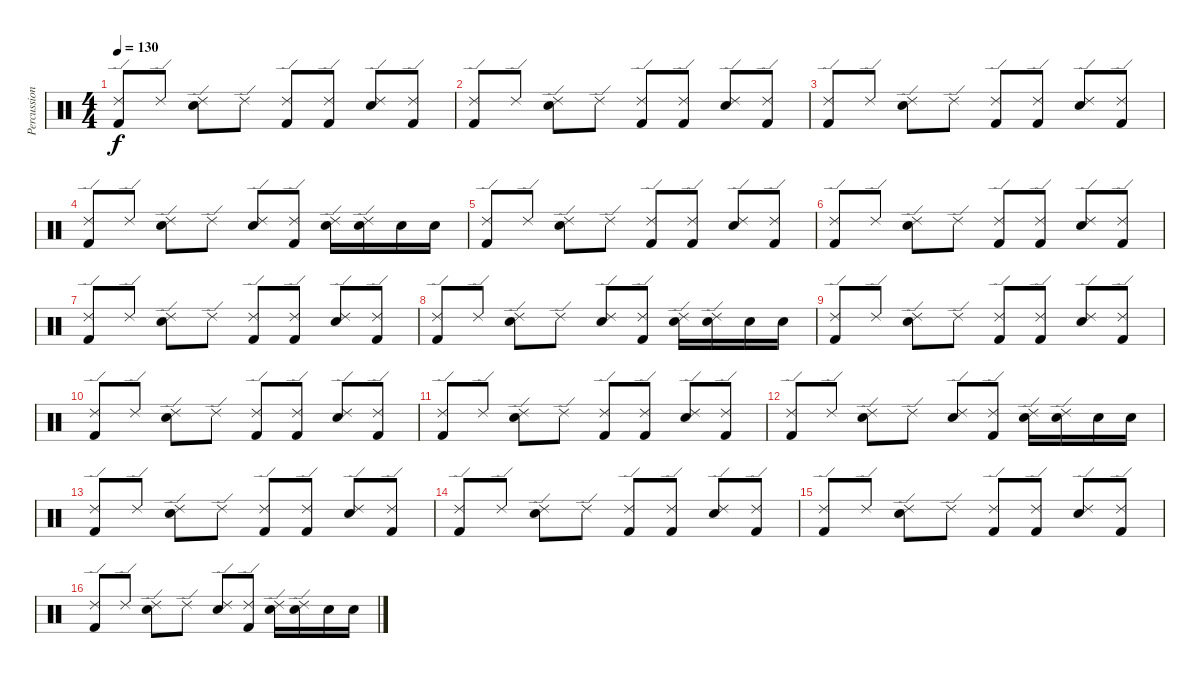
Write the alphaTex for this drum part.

\track ("Percussion" "Percussion") {instrument percussion}
\staff {score}
\articulation defaults
\ts (4 4)
\tempo 130
\clef neutral
\ks c
("Kick (hit) 2" "Ride (edge) 2").8{dy f} "Ride (edge) 2".8 ("Electric Snare (hit)" "Ride (edge) 2").8 "Ride (edge) 2".8 ("Kick (hit) 2" "Ride (edge) 2").8 ("Kick (hit) 2" "Ride (edge) 2").8 ("Electric Snare (hit)" "Ride (edge) 2").8 ("Kick (hit) 2" "Ride (edge) 2").8 |
("Kick (hit) 2" "Ride (edge) 2").8 "Ride (edge) 2".8 ("Electric Snare (hit)" "Ride (edge) 2").8 "Ride (edge) 2".8 ("Kick (hit) 2" "Ride (edge) 2").8 ("Kick (hit) 2" "Ride (edge) 2").8 ("Electric Snare (hit)" "Ride (edge) 2").8 ("Kick (hit) 2" "Ride (edge) 2").8 |
("Kick (hit) 2" "Ride (edge) 2").8 "Ride (edge) 2".8 ("Electric Snare (hit)" "Ride (edge) 2").8 "Ride (edge) 2".8 ("Kick (hit) 2" "Ride (edge) 2").8 ("Kick (hit) 2" "Ride (edge) 2").8 ("Electric Snare (hit)" "Ride (edge) 2").8 ("Kick (hit) 2" "Ride (edge) 2").8 |
("Kick (hit) 2" "Ride (edge) 2").8 "Ride (edge) 2".8 ("Electric Snare (hit)" "Ride (edge) 2").8 "Ride (edge) 2".8 ("Electric Snare (hit)" "Ride (edge) 2").8 ("Kick (hit) 2" "Ride (edge) 2").8 ("Electric Snare (hit)" "Ride (edge) 2").16 ("Electric Snare (hit)" "Ride (edge) 2").16 "Electric Snare (hit)".16 "Electric Snare (hit)".16 |
("Kick (hit) 2" "Ride (edge) 2").8 "Ride (edge) 2".8 ("Electric Snare (hit)" "Ride (edge) 2").8 "Ride (edge) 2".8 ("Kick (hit) 2" "Ride (edge) 2").8 ("Kick (hit) 2" "Ride (edge) 2").8 ("Electric Snare (hit)" "Ride (edge) 2").8 ("Kick (hit) 2" "Ride (edge) 2").8 |
("Kick (hit) 2" "Ride (edge) 2").8 "Ride (edge) 2".8 ("Electric Snare (hit)" "Ride (edge) 2").8 "Ride (edge) 2".8 ("Kick (hit) 2" "Ride (edge) 2").8 ("Kick (hit) 2" "Ride (edge) 2").8 ("Electric Snare (hit)" "Ride (edge) 2").8 ("Kick (hit) 2" "Ride (edge) 2").8 |
("Kick (hit) 2" "Ride (edge) 2").8 "Ride (edge) 2".8 ("Electric Snare (hit)" "Ride (edge) 2").8 "Ride (edge) 2".8 ("Kick (hit) 2" "Ride (edge) 2").8 ("Kick (hit) 2" "Ride (edge) 2").8 ("Electric Snare (hit)" "Ride (edge) 2").8 ("Kick (hit) 2" "Ride (edge) 2").8 |
("Kick (hit) 2" "Ride (edge) 2").8 "Ride (edge) 2".8 ("Electric Snare (hit)" "Ride (edge) 2").8 "Ride (edge) 2".8 ("Electric Snare (hit)" "Ride (edge) 2").8 ("Kick (hit) 2" "Ride (edge) 2").8 ("Electric Snare (hit)" "Ride (edge) 2").16 ("Electric Snare (hit)" "Ride (edge) 2").16 "Electric Snare (hit)".16 "Electric Snare (hit)".16 |
("Kick (hit) 2" "Ride (edge) 2").8 "Ride (edge) 2".8 ("Electric Snare (hit)" "Ride (edge) 2").8 "Ride (edge) 2".8 ("Kick (hit) 2" "Ride (edge) 2").8 ("Kick (hit) 2" "Ride (edge) 2").8 ("Electric Snare (hit)" "Ride (edge) 2").8 ("Kick (hit) 2" "Ride (edge) 2").8 |
("Kick (hit) 2" "Ride (edge) 2").8 "Ride (edge) 2".8 ("Electric Snare (hit)" "Ride (edge) 2").8 "Ride (edge) 2".8 ("Kick (hit) 2" "Ride (edge) 2").8 ("Kick (hit) 2" "Ride (edge) 2").8 ("Electric Snare (hit)" "Ride (edge) 2").8 ("Kick (hit) 2" "Ride (edge) 2").8 |
("Kick (hit) 2" "Ride (edge) 2").8 "Ride (edge) 2".8 ("Electric Snare (hit)" "Ride (edge) 2").8 "Ride (edge) 2".8 ("Kick (hit) 2" "Ride (edge) 2").8 ("Kick (hit) 2" "Ride (edge) 2").8 ("Electric Snare (hit)" "Ride (edge) 2").8 ("Kick (hit) 2" "Ride (edge) 2").8 |
("Kick (hit) 2" "Ride (edge) 2").8 "Ride (edge) 2".8 ("Electric Snare (hit)" "Ride (edge) 2").8 "Ride (edge) 2".8 ("Electric Snare (hit)" "Ride (edge) 2").8 ("Kick (hit) 2" "Ride (edge) 2").8 ("Electric Snare (hit)" "Ride (edge) 2").16 ("Electric Snare (hit)" "Ride (edge) 2").16 "Electric Snare (hit)".16 "Electric Snare (hit)".16 |
("Kick (hit) 2" "Ride (edge) 2").8 "Ride (edge) 2".8 ("Electric Snare (hit)" "Ride (edge) 2").8 "Ride (edge) 2".8 ("Kick (hit) 2" "Ride (edge) 2").8 ("Kick (hit) 2" "Ride (edge) 2").8 ("Electric Snare (hit)" "Ride (edge) 2").8 ("Kick (hit) 2" "Ride (edge) 2").8 |
("Kick (hit) 2" "Ride (edge) 2").8 "Ride (edge) 2".8 ("Electric Snare (hit)" "Ride (edge) 2").8 "Ride (edge) 2".8 ("Kick (hit) 2" "Ride (edge) 2").8 ("Kick (hit) 2" "Ride (edge) 2").8 ("Electric Snare (hit)" "Ride (edge) 2").8 ("Kick (hit) 2" "Ride (edge) 2").8 |
("Kick (hit) 2" "Ride (edge) 2").8 "Ride (edge) 2".8 ("Electric Snare (hit)" "Ride (edge) 2").8 "Ride (edge) 2".8 ("Kick (hit) 2" "Ride (edge) 2").8 ("Kick (hit) 2" "Ride (edge) 2").8 ("Electric Snare (hit)" "Ride (edge) 2").8 ("Kick (hit) 2" "Ride (edge) 2").8 |
("Kick (hit) 2" "Ride (edge) 2").8 "Ride (edge) 2".8 ("Electric Snare (hit)" "Ride (edge) 2").8 "Ride (edge) 2".8 ("Electric Snare (hit)" "Ride (edge) 2").8 ("Kick (hit) 2" "Ride (edge) 2").8 ("Electric Snare (hit)" "Ride (edge) 2").16 ("Electric Snare (hit)" "Ride (edge) 2").16 "Electric Snare (hit)".16 "Electric Snare (hit)".16
